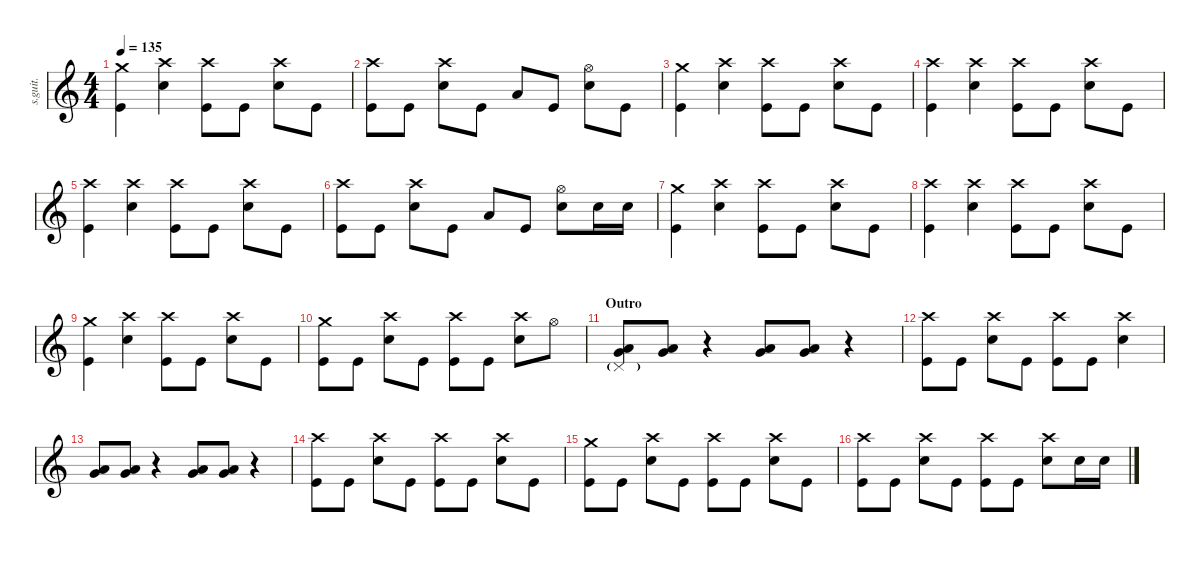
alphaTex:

\defaultSystemsLayout 4
\hideDynamics
\bracketExtendMode nobrackets
\track ("Jen Ledger" "s.guit.") {instrument percussion}
\staff {score}
\articulation defaults
\ts (4 4)
\tempo 135
\clef g2
\ks c
("Crash medium (hit)" "Kick (hit)").4{lyrics (0 "") lyrics (1 "") lyrics (2 "") lyrics (3 "") lyrics (4 "") dy fff} ("Crash high (hit)" "Snare (hit) 2").4{lyrics (0 "") lyrics (1 "") lyrics (2 "") lyrics (3 "") lyrics (4 "") dy f} ("Crash high (hit)" "Kick (hit)").8{lyrics (0 "") lyrics (1 "") lyrics (2 "") lyrics (3 "") lyrics (4 "")} "Kick (hit)".8{lyrics (0 "") lyrics (1 "") lyrics (2 "") lyrics (3 "") lyrics (4 "") dy fff} ("Crash high (hit)" "Snare (hit) 2").8{lyrics (0 "") lyrics (1 "") lyrics (2 "") lyrics (3 "") lyrics (4 "") dy f} "Kick (hit)".8{lyrics (0 "") lyrics (1 "") lyrics (2 "") lyrics (3 "") lyrics (4 "") dy fff} |
("Crash high (hit)" "Kick (hit)").8{lyrics (0 "") lyrics (1 "") lyrics (2 "") lyrics (3 "") lyrics (4 "")} "Kick (hit)".8{lyrics (0 "") lyrics (1 "") lyrics (2 "") lyrics (3 "") lyrics (4 "")} ("Crash high (hit)" "Snare (hit) 2").8{lyrics (0 "") lyrics (1 "") lyrics (2 "") lyrics (3 "") lyrics (4 "") dy f} "Kick (hit)".8{lyrics (0 "") lyrics (1 "") lyrics (2 "") lyrics (3 "") lyrics (4 "") dy fff} "Low Tom (hit)".8{lyrics (0 "") lyrics (1 "") lyrics (2 "") lyrics (3 "") lyrics (4 "")} "Kick (hit)".8{lyrics (0 "") lyrics (1 "") lyrics (2 "") lyrics (3 "") lyrics (4 "")} ("Hi-Hat (open)" "Snare (hit) 2").8{lyrics (0 "") lyrics (1 "") lyrics (2 "") lyrics (3 "") lyrics (4 "") dy f} "Kick (hit)".8{lyrics (0 "") lyrics (1 "") lyrics (2 "") lyrics (3 "") lyrics (4 "") dy fff} |
("Crash medium (hit)" "Kick (hit)").4{lyrics (0 "") lyrics (1 "") lyrics (2 "") lyrics (3 "") lyrics (4 "")} ("Crash high (hit)" "Snare (hit) 2").4{lyrics (0 "") lyrics (1 "") lyrics (2 "") lyrics (3 "") lyrics (4 "") dy f} ("Crash high (hit)" "Kick (hit)").8{lyrics (0 "") lyrics (1 "") lyrics (2 "") lyrics (3 "") lyrics (4 "")} "Kick (hit)".8{lyrics (0 "") lyrics (1 "") lyrics (2 "") lyrics (3 "") lyrics (4 "") dy fff} ("Crash high (hit)" "Snare (hit) 2").8{lyrics (0 "") lyrics (1 "") lyrics (2 "") lyrics (3 "") lyrics (4 "") dy f} "Kick (hit)".8{lyrics (0 "") lyrics (1 "") lyrics (2 "") lyrics (3 "") lyrics (4 "") dy fff} |
("Crash high (hit)" "Kick (hit)").4{lyrics (0 "") lyrics (1 "") lyrics (2 "") lyrics (3 "") lyrics (4 "")} ("Crash high (hit)" "Snare (hit) 2").4{lyrics (0 "") lyrics (1 "") lyrics (2 "") lyrics (3 "") lyrics (4 "") dy f} ("Crash high (hit)" "Kick (hit)").8{lyrics (0 "") lyrics (1 "") lyrics (2 "") lyrics (3 "") lyrics (4 "")} "Kick (hit)".8{lyrics (0 "") lyrics (1 "") lyrics (2 "") lyrics (3 "") lyrics (4 "") dy fff} ("Crash high (hit)" "Snare (hit) 2").8{lyrics (0 "") lyrics (1 "") lyrics (2 "") lyrics (3 "") lyrics (4 "") dy f} "Kick (hit)".8{lyrics (0 "") lyrics (1 "") lyrics (2 "") lyrics (3 "") lyrics (4 "") dy fff} |
("Crash high (hit)" "Kick (hit)").4{lyrics (0 "") lyrics (1 "") lyrics (2 "") lyrics (3 "") lyrics (4 "")} ("Crash high (hit)" "Snare (hit) 2").4{lyrics (0 "") lyrics (1 "") lyrics (2 "") lyrics (3 "") lyrics (4 "") dy f} ("Crash high (hit)" "Kick (hit)").8{lyrics (0 "") lyrics (1 "") lyrics (2 "") lyrics (3 "") lyrics (4 "")} "Kick (hit)".8{lyrics (0 "") lyrics (1 "") lyrics (2 "") lyrics (3 "") lyrics (4 "") dy fff} ("Crash high (hit)" "Snare (hit) 2").8{lyrics (0 "") lyrics (1 "") lyrics (2 "") lyrics (3 "") lyrics (4 "") dy f} "Kick (hit)".8{lyrics (0 "") lyrics (1 "") lyrics (2 "") lyrics (3 "") lyrics (4 "") dy fff} |
("Crash high (hit)" "Kick (hit)").8{lyrics (0 "") lyrics (1 "") lyrics (2 "") lyrics (3 "") lyrics (4 "")} "Kick (hit)".8{lyrics (0 "") lyrics (1 "") lyrics (2 "") lyrics (3 "") lyrics (4 "")} ("Crash high (hit)" "Snare (hit) 2").8{lyrics (0 "") lyrics (1 "") lyrics (2 "") lyrics (3 "") lyrics (4 "") dy f} "Kick (hit)".8{lyrics (0 "") lyrics (1 "") lyrics (2 "") lyrics (3 "") lyrics (4 "") dy fff} "Low Tom (hit)".8{lyrics (0 "") lyrics (1 "") lyrics (2 "") lyrics (3 "") lyrics (4 "")} "Kick (hit)".8{lyrics (0 "") lyrics (1 "") lyrics (2 "") lyrics (3 "") lyrics (4 "")} ("Hi-Hat (open)" "Snare (hit) 2").8{lyrics (0 "") lyrics (1 "") lyrics (2 "") lyrics (3 "") lyrics (4 "") dy f} "Snare (hit) 2".16{lyrics (0 "") lyrics (1 "") lyrics (2 "") lyrics (3 "") lyrics (4 "")} "Snare (hit) 2".16{lyrics (0 "") lyrics (1 "") lyrics (2 "") lyrics (3 "") lyrics (4 "")} |
("Crash medium (hit)" "Kick (hit)").4{lyrics (0 "") lyrics (1 "") lyrics (2 "") lyrics (3 "") lyrics (4 "")} ("Crash high (hit)" "Snare (hit) 2").4{lyrics (0 "") lyrics (1 "") lyrics (2 "") lyrics (3 "") lyrics (4 "")} ("Crash high (hit)" "Kick (hit)").8{lyrics (0 "") lyrics (1 "") lyrics (2 "") lyrics (3 "") lyrics (4 "")} "Kick (hit)".8{lyrics (0 "") lyrics (1 "") lyrics (2 "") lyrics (3 "") lyrics (4 "") dy fff} ("Crash high (hit)" "Snare (hit) 2").8{lyrics (0 "") lyrics (1 "") lyrics (2 "") lyrics (3 "") lyrics (4 "") dy f} "Kick (hit)".8{lyrics (0 "") lyrics (1 "") lyrics (2 "") lyrics (3 "") lyrics (4 "") dy fff} |
("Crash high (hit)" "Kick (hit)").4{lyrics (0 "") lyrics (1 "") lyrics (2 "") lyrics (3 "") lyrics (4 "")} ("Crash high (hit)" "Snare (hit) 2").4{lyrics (0 "") lyrics (1 "") lyrics (2 "") lyrics (3 "") lyrics (4 "") dy f} ("Crash high (hit)" "Kick (hit)").8{lyrics (0 "") lyrics (1 "") lyrics (2 "") lyrics (3 "") lyrics (4 "")} "Kick (hit)".8{lyrics (0 "") lyrics (1 "") lyrics (2 "") lyrics (3 "") lyrics (4 "") dy fff} ("Crash high (hit)" "Snare (hit) 2").8{lyrics (0 "") lyrics (1 "") lyrics (2 "") lyrics (3 "") lyrics (4 "") dy f} "Kick (hit)".8{lyrics (0 "") lyrics (1 "") lyrics (2 "") lyrics (3 "") lyrics (4 "") dy fff} |
("Crash medium (hit)" "Kick (hit)").4{lyrics (0 "") lyrics (1 "") lyrics (2 "") lyrics (3 "") lyrics (4 "")} ("Crash high (hit)" "Snare (hit) 2").4{lyrics (0 "") lyrics (1 "") lyrics (2 "") lyrics (3 "") lyrics (4 "") dy f} ("Crash high (hit)" "Kick (hit)").8{lyrics (0 "") lyrics (1 "") lyrics (2 "") lyrics (3 "") lyrics (4 "")} "Kick (hit)".8{lyrics (0 "") lyrics (1 "") lyrics (2 "") lyrics (3 "") lyrics (4 "") dy fff} ("Crash high (hit)" "Snare (hit) 2").8{lyrics (0 "") lyrics (1 "") lyrics (2 "") lyrics (3 "") lyrics (4 "") dy f} "Kick (hit)".8{lyrics (0 "") lyrics (1 "") lyrics (2 "") lyrics (3 "") lyrics (4 "") dy fff} |
("Crash medium (hit)" "Kick (hit)").8{lyrics (0 "") lyrics (1 "") lyrics (2 "") lyrics (3 "") lyrics (4 "")} "Kick (hit)".8{lyrics (0 "") lyrics (1 "") lyrics (2 "") lyrics (3 "") lyrics (4 "")} ("Crash high (hit)" "Snare (hit) 2").8{lyrics (0 "") lyrics (1 "") lyrics (2 "") lyrics (3 "") lyrics (4 "") dy f} "Kick (hit)".8{lyrics (0 "") lyrics (1 "") lyrics (2 "") lyrics (3 "") lyrics (4 "") dy fff} ("Crash high (hit)" "Kick (hit)").8{lyrics (0 "") lyrics (1 "") lyrics (2 "") lyrics (3 "") lyrics (4 "")} "Kick (hit)".8{lyrics (0 "") lyrics (1 "") lyrics (2 "") lyrics (3 "") lyrics (4 "")} ("Crash high (hit)" "Snare (hit) 2").8{lyrics (0 "") lyrics (1 "") lyrics (2 "") lyrics (3 "") lyrics (4 "") dy f} "Hi-Hat (open)".8{lyrics (0 "") lyrics (1 "") lyrics (2 "") lyrics (3 "") lyrics (4 "")} |
\section ("" "Outro")
("Low Tom (hit)" "Very Low Tom (hit)" "Pedal Hi-Hat (hit)"{g}).8{lyrics (0 "") lyrics (1 "") lyrics (2 "") lyrics (3 "") lyrics (4 "")} ("Low Tom (hit)" "Very Low Tom (hit)").8{lyrics (0 "") lyrics (1 "") lyrics (2 "") lyrics (3 "") lyrics (4 "")} r.4 ("Low Tom (hit)" "Very Low Tom (hit)").8{lyrics (0 "") lyrics (1 "") lyrics (2 "") lyrics (3 "") lyrics (4 "")} ("Low Tom (hit)" "Very Low Tom (hit)").8{lyrics (0 "") lyrics (1 "") lyrics (2 "") lyrics (3 "") lyrics (4 "")} r.4 |
("Crash high (hit)" "Kick (hit)").8{lyrics (0 "") lyrics (1 "") lyrics (2 "") lyrics (3 "") lyrics (4 "")} "Kick (hit)".8{lyrics (0 "") lyrics (1 "") lyrics (2 "") lyrics (3 "") lyrics (4 "") dy fff} ("Crash high (hit)" "Snare (hit) 2").8{lyrics (0 "") lyrics (1 "") lyrics (2 "") lyrics (3 "") lyrics (4 "") dy f} "Kick (hit)".8{lyrics (0 "") lyrics (1 "") lyrics (2 "") lyrics (3 "") lyrics (4 "") dy fff} ("Crash high (hit)" "Kick (hit)").8{lyrics (0 "") lyrics (1 "") lyrics (2 "") lyrics (3 "") lyrics (4 "")} "Kick (hit)".8{lyrics (0 "") lyrics (1 "") lyrics (2 "") lyrics (3 "") lyrics (4 "")} ("Crash high (hit)" "Snare (hit) 2").4{lyrics (0 "") lyrics (1 "") lyrics (2 "") lyrics (3 "") lyrics (4 "") dy f} |
("Low Tom (hit)" "Very Low Tom (hit)").8{lyrics (0 "") lyrics (1 "") lyrics (2 "") lyrics (3 "") lyrics (4 "")} ("Low Tom (hit)" "Very Low Tom (hit)").8{lyrics (0 "") lyrics (1 "") lyrics (2 "") lyrics (3 "") lyrics (4 "")} r.4 ("Low Tom (hit)" "Very Low Tom (hit)").8{lyrics (0 "") lyrics (1 "") lyrics (2 "") lyrics (3 "") lyrics (4 "")} ("Low Tom (hit)" "Very Low Tom (hit)").8{lyrics (0 "") lyrics (1 "") lyrics (2 "") lyrics (3 "") lyrics (4 "")} r.4 |
("Crash high (hit)" "Kick (hit)").8{lyrics (0 "") lyrics (1 "") lyrics (2 "") lyrics (3 "") lyrics (4 "")} "Kick (hit)".8{lyrics (0 "") lyrics (1 "") lyrics (2 "") lyrics (3 "") lyrics (4 "") dy fff} ("Crash high (hit)" "Snare (hit) 2").8{lyrics (0 "") lyrics (1 "") lyrics (2 "") lyrics (3 "") lyrics (4 "") dy f} "Kick (hit)".8{lyrics (0 "") lyrics (1 "") lyrics (2 "") lyrics (3 "") lyrics (4 "") dy fff} ("Crash high (hit)" "Kick (hit)").8{lyrics (0 "") lyrics (1 "") lyrics (2 "") lyrics (3 "") lyrics (4 "")} "Kick (hit)".8{lyrics (0 "") lyrics (1 "") lyrics (2 "") lyrics (3 "") lyrics (4 "")} ("Crash high (hit)" "Snare (hit) 2").8{lyrics (0 "") lyrics (1 "") lyrics (2 "") lyrics (3 "") lyrics (4 "") dy f} "Kick (hit)".8{lyrics (0 "") lyrics (1 "") lyrics (2 "") lyrics (3 "") lyrics (4 "") dy fff} |
("Crash medium (hit)" "Kick (hit)").8{lyrics (0 "") lyrics (1 "") lyrics (2 "") lyrics (3 "") lyrics (4 "")} "Kick (hit)".8{lyrics (0 "") lyrics (1 "") lyrics (2 "") lyrics (3 "") lyrics (4 "")} ("Crash high (hit)" "Snare (hit) 2").8{lyrics (0 "") lyrics (1 "") lyrics (2 "") lyrics (3 "") lyrics (4 "") dy f} "Kick (hit)".8{lyrics (0 "") lyrics (1 "") lyrics (2 "") lyrics (3 "") lyrics (4 "") dy fff} ("Crash high (hit)" "Kick (hit)").8{lyrics (0 "") lyrics (1 "") lyrics (2 "") lyrics (3 "") lyrics (4 "")} "Kick (hit)".8{lyrics (0 "") lyrics (1 "") lyrics (2 "") lyrics (3 "") lyrics (4 "")} ("Crash high (hit)" "Snare (hit) 2").8{lyrics (0 "") lyrics (1 "") lyrics (2 "") lyrics (3 "") lyrics (4 "") dy f} "Kick (hit)".8{lyrics (0 "") lyrics (1 "") lyrics (2 "") lyrics (3 "") lyrics (4 "") dy fff} |
("Crash high (hit)" "Kick (hit)").8{lyrics (0 "") lyrics (1 "") lyrics (2 "") lyrics (3 "") lyrics (4 "")} "Kick (hit)".8{lyrics (0 "") lyrics (1 "") lyrics (2 "") lyrics (3 "") lyrics (4 "")} ("Crash high (hit)" "Snare (hit) 2").8{lyrics (0 "") lyrics (1 "") lyrics (2 "") lyrics (3 "") lyrics (4 "") dy f} "Kick (hit)".8{lyrics (0 "") lyrics (1 "") lyrics (2 "") lyrics (3 "") lyrics (4 "") dy fff} ("Crash high (hit)" "Kick (hit)").8{lyrics (0 "") lyrics (1 "") lyrics (2 "") lyrics (3 "") lyrics (4 "")} "Kick (hit)".8{lyrics (0 "") lyrics (1 "") lyrics (2 "") lyrics (3 "") lyrics (4 "")} ("Crash high (hit)" "Snare (hit) 2").8{lyrics (0 "") lyrics (1 "") lyrics (2 "") lyrics (3 "") lyrics (4 "") dy f} "Snare (hit) 2".16{lyrics (0 "") lyrics (1 "") lyrics (2 "") lyrics (3 "") lyrics (4 "")} "Snare (hit) 2".16{lyrics (0 "") lyrics (1 "") lyrics (2 "") lyrics (3 "") lyrics (4 "")}
